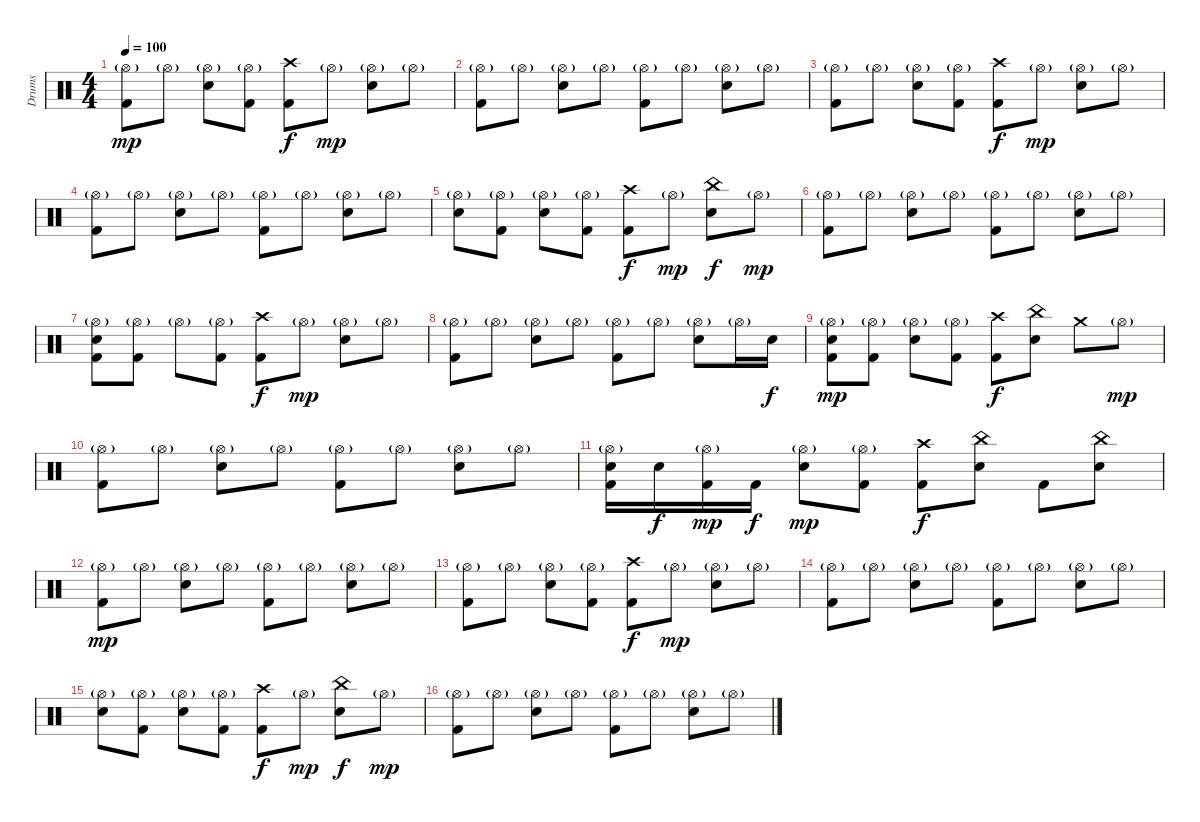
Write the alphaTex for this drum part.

\track ("Drums" "Drums") {instrument percussion}
\staff {score}
\articulation defaults
\ts (4 4)
\tempo 100
\clef neutral
\ks c
("Hi-Hat (open)"{g} "Kick (hit) 2").8{dy mp} "Hi-Hat (open)"{g}.8 ("Snare (hit) 2" "Hi-Hat (open)"{g}).8 ("Hi-Hat (open)"{g} "Kick (hit) 2").8 ("Crash high (hit)" "Kick (hit) 2").8{dy f} "Hi-Hat (open)"{g}.8{dy mp} ("Snare (hit) 2" "Hi-Hat (open)"{g}).8 "Hi-Hat (open)"{g}.8 |
("Hi-Hat (open)"{g} "Kick (hit) 2").8 "Hi-Hat (open)"{g}.8 ("Snare (hit) 2" "Hi-Hat (open)"{g}).8 "Hi-Hat (open)"{g}.8 ("Hi-Hat (open)"{g} "Kick (hit) 2").8 "Hi-Hat (open)"{g}.8 ("Snare (hit) 2" "Hi-Hat (open)"{g}).8 "Hi-Hat (open)"{g}.8 |
("Hi-Hat (open)"{g} "Kick (hit) 2").8 "Hi-Hat (open)"{g}.8 ("Snare (hit) 2" "Hi-Hat (open)"{g}).8 ("Hi-Hat (open)"{g} "Kick (hit) 2").8 ("Crash high (hit)" "Kick (hit) 2").8{dy f} "Hi-Hat (open)"{g}.8{dy mp} ("Snare (hit) 2" "Hi-Hat (open)"{g}).8 "Hi-Hat (open)"{g}.8 |
("Hi-Hat (open)"{g} "Kick (hit) 2").8 "Hi-Hat (open)"{g}.8 ("Snare (hit) 2" "Hi-Hat (open)"{g}).8 "Hi-Hat (open)"{g}.8 ("Hi-Hat (open)"{g} "Kick (hit) 2").8 "Hi-Hat (open)"{g}.8 ("Snare (hit) 2" "Hi-Hat (open)"{g}).8 "Hi-Hat (open)"{g}.8 |
("Snare (hit) 2" "Hi-Hat (open)"{g}).8 ("Hi-Hat (open)"{g} "Kick (hit) 2").8 ("Snare (hit) 2" "Hi-Hat (open)"{g}).8 ("Hi-Hat (open)"{g} "Kick (hit) 2").8 ("Crash high (hit)" "Kick (hit) 2").8{dy f} "Hi-Hat (open)"{g}.8{dy mp} ("Snare (hit) 2" "China (hit)").8{dy f} "Hi-Hat (open)"{g}.8{dy mp} |
("Hi-Hat (open)"{g} "Kick (hit) 2").8 "Hi-Hat (open)"{g}.8 ("Snare (hit) 2" "Hi-Hat (open)"{g}).8 "Hi-Hat (open)"{g}.8 ("Hi-Hat (open)"{g} "Kick (hit) 2").8 "Hi-Hat (open)"{g}.8 ("Snare (hit) 2" "Hi-Hat (open)"{g}).8 "Hi-Hat (open)"{g}.8 |
("Snare (hit) 2" "Hi-Hat (open)"{g} "Kick (hit) 2").8 ("Hi-Hat (open)"{g} "Kick (hit) 2").8 "Hi-Hat (open)"{g}.8 ("Hi-Hat (open)"{g} "Kick (hit) 2").8 ("Crash high (hit)" "Kick (hit) 2").8{dy f} "Hi-Hat (open)"{g}.8{dy mp} ("Snare (hit) 2" "Hi-Hat (open)"{g}).8 "Hi-Hat (open)"{g}.8 |
("Hi-Hat (open)"{g} "Kick (hit) 2").8 "Hi-Hat (open)"{g}.8 ("Snare (hit) 2" "Hi-Hat (open)"{g}).8 "Hi-Hat (open)"{g}.8 ("Hi-Hat (open)"{g} "Kick (hit) 2").8 "Hi-Hat (open)"{g}.8 ("Snare (hit) 2" "Hi-Hat (open)"{g}).8 "Hi-Hat (open)"{g}.16 "Snare (hit) 2".16{dy f} |
("Snare (hit) 2" "Hi-Hat (open)"{g} "Kick (hit) 2").8{dy mp} ("Hi-Hat (open)"{g} "Kick (hit) 2").8 ("Snare (hit) 2" "Hi-Hat (open)"{g}).8 ("Hi-Hat (open)"{g} "Kick (hit) 2").8 ("Crash high (hit)" "Kick (hit) 2").8{dy f} ("Snare (hit) 2" "China (hit)").8 "Crash medium (hit)".8 "Hi-Hat (open)"{g}.8{dy mp} |
("Hi-Hat (open)"{g} "Kick (hit) 2").8 "Hi-Hat (open)"{g}.8 ("Snare (hit) 2" "Hi-Hat (open)"{g}).8 "Hi-Hat (open)"{g}.8 ("Hi-Hat (open)"{g} "Kick (hit) 2").8 "Hi-Hat (open)"{g}.8 ("Snare (hit) 2" "Hi-Hat (open)"{g}).8 "Hi-Hat (open)"{g}.8 |
("Snare (hit) 2" "Hi-Hat (open)"{g} "Kick (hit) 2").16 "Snare (hit) 2".16{dy f} ("Hi-Hat (open)"{g} "Kick (hit) 2").16{dy mp} "Kick (hit) 2".16{dy f} ("Snare (hit) 2" "Hi-Hat (open)"{g}).8{dy mp} ("Hi-Hat (open)"{g} "Kick (hit) 2").8 ("Crash high (hit)" "Kick (hit) 2").8{dy f} ("Snare (hit) 2" "China (hit)").8 "Kick (hit) 2".8 ("Snare (hit) 2" "China (hit)").8 |
("Hi-Hat (open)"{g} "Kick (hit) 2").8{dy mp} "Hi-Hat (open)"{g}.8 ("Snare (hit) 2" "Hi-Hat (open)"{g}).8 "Hi-Hat (open)"{g}.8 ("Hi-Hat (open)"{g} "Kick (hit) 2").8 "Hi-Hat (open)"{g}.8 ("Snare (hit) 2" "Hi-Hat (open)"{g}).8 "Hi-Hat (open)"{g}.8 |
("Hi-Hat (open)"{g} "Kick (hit) 2").8 "Hi-Hat (open)"{g}.8 ("Snare (hit) 2" "Hi-Hat (open)"{g}).8 ("Hi-Hat (open)"{g} "Kick (hit) 2").8 ("Crash high (hit)" "Kick (hit) 2").8{dy f} "Hi-Hat (open)"{g}.8{dy mp} ("Snare (hit) 2" "Hi-Hat (open)"{g}).8 "Hi-Hat (open)"{g}.8 |
("Hi-Hat (open)"{g} "Kick (hit) 2").8 "Hi-Hat (open)"{g}.8 ("Snare (hit) 2" "Hi-Hat (open)"{g}).8 "Hi-Hat (open)"{g}.8 ("Hi-Hat (open)"{g} "Kick (hit) 2").8 "Hi-Hat (open)"{g}.8 ("Snare (hit) 2" "Hi-Hat (open)"{g}).8 "Hi-Hat (open)"{g}.8 |
("Snare (hit) 2" "Hi-Hat (open)"{g}).8 ("Hi-Hat (open)"{g} "Kick (hit) 2").8 ("Snare (hit) 2" "Hi-Hat (open)"{g}).8 ("Hi-Hat (open)"{g} "Kick (hit) 2").8 ("Crash high (hit)" "Kick (hit) 2").8{dy f} "Hi-Hat (open)"{g}.8{dy mp} ("Snare (hit) 2" "China (hit)").8{dy f} "Hi-Hat (open)"{g}.8{dy mp} |
("Hi-Hat (open)"{g} "Kick (hit) 2").8 "Hi-Hat (open)"{g}.8 ("Snare (hit) 2" "Hi-Hat (open)"{g}).8 "Hi-Hat (open)"{g}.8 ("Hi-Hat (open)"{g} "Kick (hit) 2").8 "Hi-Hat (open)"{g}.8 ("Snare (hit) 2" "Hi-Hat (open)"{g}).8 "Hi-Hat (open)"{g}.8
